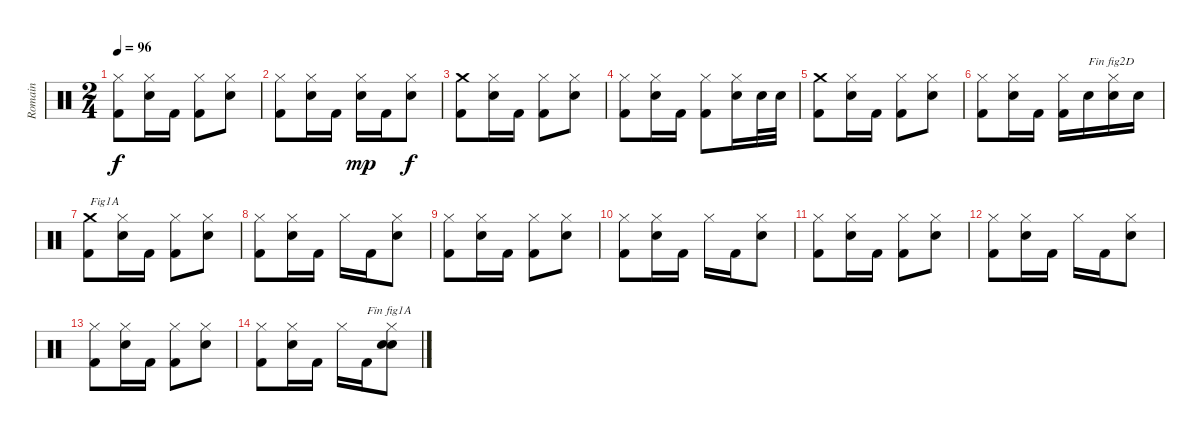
\track ("Romain" "Romain") {instrument percussion}
\staff {score}
\articulation defaults
\ts (2 4)
\tempo 96
\clef neutral
\ks c
("Kick (hit) 2" "Hi-Hat (closed)").8{dy f} ("Electric Snare (hit)" "Hi-Hat (closed)").16 "Kick (hit) 2".16 ("Kick (hit) 2" "Hi-Hat (closed)").8 ("Electric Snare (hit)" "Hi-Hat (closed)").8 |
("Kick (hit) 2" "Hi-Hat (closed)").8 ("Electric Snare (hit)" "Hi-Hat (closed)").16 "Kick (hit) 2".16 ("Electric Snare (hit)" "Hi-Hat (closed)").16{dy mp} "Kick (hit) 2".16 ("Electric Snare (hit)" "Hi-Hat (closed)").8{dy f} |
("Kick (hit) 2" "Crash medium (hit)").8 ("Electric Snare (hit)" "Hi-Hat (closed)").16 "Kick (hit) 2".16 ("Kick (hit) 2" "Hi-Hat (closed)").8 ("Electric Snare (hit)" "Hi-Hat (closed)").8 |
("Kick (hit) 2" "Hi-Hat (closed)").8 ("Electric Snare (hit)" "Hi-Hat (closed)").16 "Kick (hit) 2".16 ("Kick (hit) 2" "Hi-Hat (closed)").8 ("Electric Snare (hit)" "Hi-Hat (closed)").16 "Electric Snare (hit)".32 "Electric Snare (hit)".32 |
("Kick (hit) 2" "Crash medium (hit)").8 ("Electric Snare (hit)" "Hi-Hat (closed)").16 "Kick (hit) 2".16 ("Kick (hit) 2" "Hi-Hat (closed)").8 ("Electric Snare (hit)" "Hi-Hat (closed)").8 |
("Kick (hit) 2" "Hi-Hat (closed)").8 ("Electric Snare (hit)" "Hi-Hat (closed)").16 "Kick (hit) 2".16 ("Kick (hit) 2" "Hi-Hat (closed)").16 "Electric Snare (hit)".16{txt "Fin fig2D"} ("Electric Snare (hit)" "Hi-Hat (closed)").16 "Electric Snare (hit)".16 |
("Kick (hit) 2" "Crash medium (hit)").8{txt "Fig1A"} ("Electric Snare (hit)" "Hi-Hat (closed)").16 "Kick (hit) 2".16 ("Kick (hit) 2" "Hi-Hat (closed)").8 ("Electric Snare (hit)" "Hi-Hat (closed)").8 |
("Kick (hit) 2" "Hi-Hat (closed)").8 ("Electric Snare (hit)" "Hi-Hat (closed)").16 "Kick (hit) 2".16 "Hi-Hat (closed)".16 "Kick (hit) 2".16 ("Electric Snare (hit)" "Hi-Hat (closed)").8 |
("Kick (hit) 2" "Hi-Hat (closed)").8 ("Electric Snare (hit)" "Hi-Hat (closed)").16 "Kick (hit) 2".16 ("Kick (hit) 2" "Hi-Hat (closed)").8 ("Electric Snare (hit)" "Hi-Hat (closed)").8 |
("Kick (hit) 2" "Hi-Hat (closed)").8 ("Electric Snare (hit)" "Hi-Hat (closed)").16 "Kick (hit) 2".16 "Hi-Hat (closed)".16 "Kick (hit) 2".16 ("Electric Snare (hit)" "Hi-Hat (closed)").8 |
("Kick (hit) 2" "Hi-Hat (closed)").8 ("Electric Snare (hit)" "Hi-Hat (closed)").16 "Kick (hit) 2".16 ("Kick (hit) 2" "Hi-Hat (closed)").8 ("Electric Snare (hit)" "Hi-Hat (closed)").8 |
("Kick (hit) 2" "Hi-Hat (closed)").8 ("Electric Snare (hit)" "Hi-Hat (closed)").16 "Kick (hit) 2".16 "Hi-Hat (closed)".16 "Kick (hit) 2".16 ("Electric Snare (hit)" "Hi-Hat (closed)").8 |
("Kick (hit) 2" "Hi-Hat (closed)").8 ("Electric Snare (hit)" "Hi-Hat (closed)").16 "Kick (hit) 2".16 ("Kick (hit) 2" "Hi-Hat (closed)").8 ("Electric Snare (hit)" "Hi-Hat (closed)").8 |
("Kick (hit) 2" "Hi-Hat (closed)").8 ("Electric Snare (hit)" "Hi-Hat (closed)").16 "Kick (hit) 2".16 "Hi-Hat (closed)".16 "Kick (hit) 2".16{txt "Fin fig1A"} ("Electric Snare (hit)" "Electric Snare (hit)" "Hi-Hat (closed)").8
